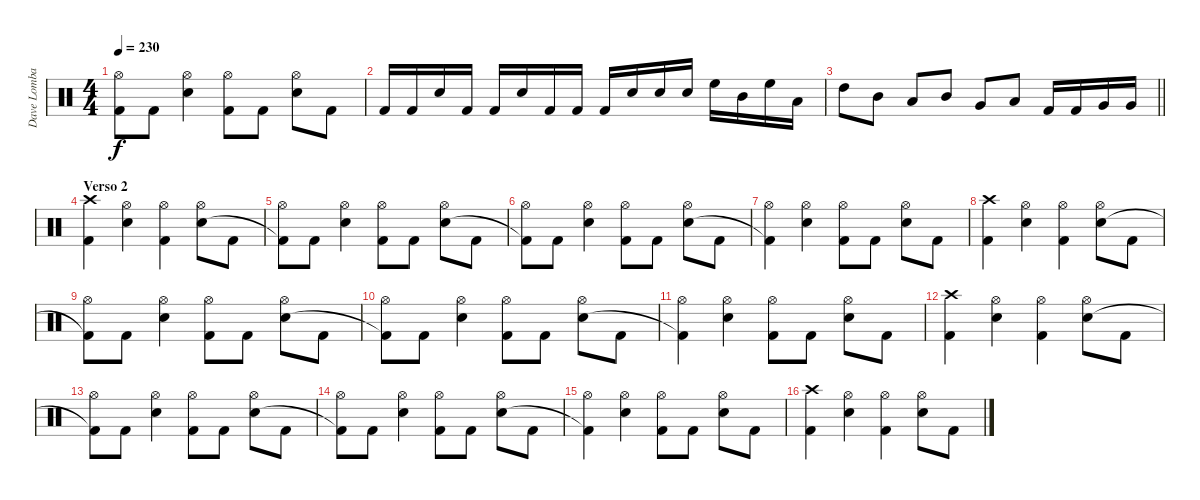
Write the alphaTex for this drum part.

\track ("Dave Lombardo" "Dave Lomba") {instrument percussion}
\staff {score}
\articulation defaults
\ts (4 4)
\tempo 230
\clef neutral
\ks c
("Hi-Hat (open)" "Kick (hit) 2"{t}).8{dy f} "Kick (hit) 2".8 ("Hi-Hat (open)" "Snare (hit) 2").4 ("Hi-Hat (open)" "Kick (hit) 2").8 "Kick (hit) 2".8 ("Hi-Hat (open)" "Snare (hit) 2").8 "Kick (hit) 2".8 |
"Kick (hit) 2".16 "Kick (hit) 2".16 "Snare (hit) 2".16 "Kick (hit) 2".16 "Kick (hit) 2".16 "Snare (hit) 2".16 "Kick (hit) 2".16 "Kick (hit) 2".16 "Kick (hit) 2".16 "Snare (hit) 2".16 "Snare (hit) 2".16 "Snare (hit) 2".16 "High Floor Tom (hit)".16 "Mid Tom (hit)".16 "High Floor Tom (hit)".16 "Low Tom (hit)".16 |
\barLineRight lightlight "High Tom (hit)".8 "Mid Tom (hit)".8 "Low Tom (hit)".8 "Mid Tom (hit)".8 "Very Low Tom (hit)".8 "Low Floor Tom (hit)".8 "Kick (hit) 2".16 "Kick (hit) 2".16 "Very Low Tom (hit)".16 "Very Low Tom (hit)".16
|
\section ("" "Verso 2")
("Crash high (hit)" "Kick (hit) 2").4 ("Hi-Hat (open)" "Snare (hit) 2").4 ("Hi-Hat (open)" "Kick (hit) 2").4 ("Hi-Hat (open)" "Snare (hit) 2").8 "Kick (hit) 2".8 |
("Hi-Hat (open)" "Kick (hit) 2"{t}).8 "Kick (hit) 2".8 ("Hi-Hat (open)" "Snare (hit) 2").4 ("Hi-Hat (open)" "Kick (hit) 2").8 "Kick (hit) 2".8 ("Hi-Hat (open)" "Snare (hit) 2").8 "Kick (hit) 2".8 |
("Hi-Hat (open)" "Kick (hit) 2"{t}).8 "Kick (hit) 2".8 ("Hi-Hat (open)" "Snare (hit) 2").4 ("Hi-Hat (open)" "Kick (hit) 2").8 "Kick (hit) 2".8 ("Hi-Hat (open)" "Snare (hit) 2").8 "Kick (hit) 2".8 |
("Hi-Hat (open)" "Kick (hit) 2"{t}).4 ("Hi-Hat (open)" "Snare (hit) 2").4 ("Hi-Hat (open)" "Kick (hit) 2").8 "Kick (hit) 2".8 ("Hi-Hat (open)" "Snare (hit) 2").8 "Kick (hit) 2".8 |
("Crash high (hit)" "Kick (hit) 2").4 ("Hi-Hat (open)" "Snare (hit) 2").4 ("Hi-Hat (open)" "Kick (hit) 2").4 ("Hi-Hat (open)" "Snare (hit) 2").8 "Kick (hit) 2".8 |
("Hi-Hat (open)" "Kick (hit) 2"{t}).8 "Kick (hit) 2".8 ("Hi-Hat (open)" "Snare (hit) 2").4 ("Hi-Hat (open)" "Kick (hit) 2").8 "Kick (hit) 2".8 ("Hi-Hat (open)" "Snare (hit) 2").8 "Kick (hit) 2".8 |
("Hi-Hat (open)" "Kick (hit) 2"{t}).8 "Kick (hit) 2".8 ("Hi-Hat (open)" "Snare (hit) 2").4 ("Hi-Hat (open)" "Kick (hit) 2").8 "Kick (hit) 2".8 ("Hi-Hat (open)" "Snare (hit) 2").8 "Kick (hit) 2".8 |
("Hi-Hat (open)" "Kick (hit) 2"{t}).4 ("Hi-Hat (open)" "Snare (hit) 2").4 ("Hi-Hat (open)" "Kick (hit) 2").8 "Kick (hit) 2".8 ("Hi-Hat (open)" "Snare (hit) 2").8 "Kick (hit) 2".8 |
("Crash high (hit)" "Kick (hit) 2").4 ("Hi-Hat (open)" "Snare (hit) 2").4 ("Hi-Hat (open)" "Kick (hit) 2").4 ("Hi-Hat (open)" "Snare (hit) 2").8 "Kick (hit) 2".8 |
("Hi-Hat (open)" "Kick (hit) 2"{t}).8 "Kick (hit) 2".8 ("Hi-Hat (open)" "Snare (hit) 2").4 ("Hi-Hat (open)" "Kick (hit) 2").8 "Kick (hit) 2".8 ("Hi-Hat (open)" "Snare (hit) 2").8 "Kick (hit) 2".8 |
("Hi-Hat (open)" "Kick (hit) 2"{t}).8 "Kick (hit) 2".8 ("Hi-Hat (open)" "Snare (hit) 2").4 ("Hi-Hat (open)" "Kick (hit) 2").8 "Kick (hit) 2".8 ("Hi-Hat (open)" "Snare (hit) 2").8 "Kick (hit) 2".8 |
("Hi-Hat (open)" "Kick (hit) 2"{t}).4 ("Hi-Hat (open)" "Snare (hit) 2").4 ("Hi-Hat (open)" "Kick (hit) 2").8 "Kick (hit) 2".8 ("Hi-Hat (open)" "Snare (hit) 2").8 "Kick (hit) 2".8 |
("Crash high (hit)" "Kick (hit) 2").4 ("Hi-Hat (open)" "Snare (hit) 2").4 ("Hi-Hat (open)" "Kick (hit) 2").4 ("Hi-Hat (open)" "Snare (hit) 2").8 "Kick (hit) 2".8
